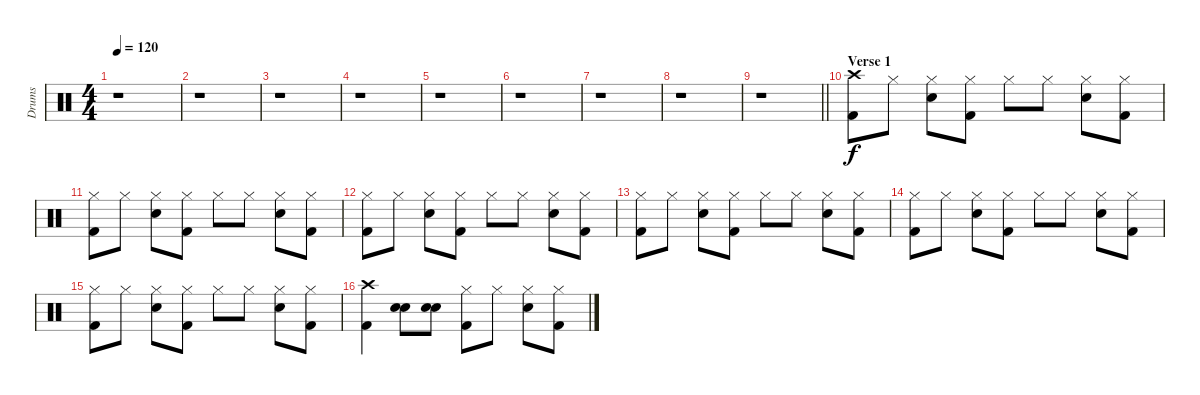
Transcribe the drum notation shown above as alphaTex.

\track ("Drums" "Drums") {instrument percussion}
\staff {score}
\articulation defaults
\ts (4 4)
\tempo 120
\clef neutral
\ks c
r.1{dy f} |
r.1 |
r.1 |
r.1 |
r.1 |
r.1 |
r.1 |
r.1 |
\barLineRight lightlight
r.1 |
\section ("" "Verse 1")
("Crash high (hit)" "Kick (hit) 2").8 "Hi-Hat (closed)".8 ("Hi-Hat (closed)" "Snare (hit) 2").8 ("Hi-Hat (closed)" "Kick (hit) 2").8 "Hi-Hat (closed)".8 "Hi-Hat (closed)".8 ("Hi-Hat (closed)" "Snare (hit) 2").8 ("Hi-Hat (closed)" "Kick (hit) 2").8 |
("Hi-Hat (closed)" "Kick (hit) 2").8 "Hi-Hat (closed)".8 ("Hi-Hat (closed)" "Snare (hit) 2").8 ("Hi-Hat (closed)" "Kick (hit) 2").8 "Hi-Hat (closed)".8 "Hi-Hat (closed)".8 ("Hi-Hat (closed)" "Snare (hit) 2").8 ("Hi-Hat (closed)" "Kick (hit) 2").8 |
("Hi-Hat (closed)" "Kick (hit) 2").8 "Hi-Hat (closed)".8 ("Hi-Hat (closed)" "Snare (hit) 2").8 ("Hi-Hat (closed)" "Kick (hit) 2").8 "Hi-Hat (closed)".8 "Hi-Hat (closed)".8 ("Hi-Hat (closed)" "Snare (hit) 2").8 ("Hi-Hat (closed)" "Kick (hit) 2").8 |
("Hi-Hat (closed)" "Kick (hit) 2").8 "Hi-Hat (closed)".8 ("Hi-Hat (closed)" "Snare (hit) 2").8 ("Hi-Hat (closed)" "Kick (hit) 2").8 "Hi-Hat (closed)".8 "Hi-Hat (closed)".8 ("Hi-Hat (closed)" "Snare (hit) 2").8 ("Hi-Hat (closed)" "Kick (hit) 2").8 |
("Hi-Hat (closed)" "Kick (hit) 2").8 "Hi-Hat (closed)".8 ("Hi-Hat (closed)" "Snare (hit) 2").8 ("Hi-Hat (closed)" "Kick (hit) 2").8 "Hi-Hat (closed)".8 "Hi-Hat (closed)".8 ("Hi-Hat (closed)" "Snare (hit) 2").8 ("Hi-Hat (closed)" "Kick (hit) 2").8 |
("Hi-Hat (closed)" "Kick (hit) 2").8 "Hi-Hat (closed)".8 ("Hi-Hat (closed)" "Snare (hit) 2").8 ("Hi-Hat (closed)" "Kick (hit) 2").8 "Hi-Hat (closed)".8 "Hi-Hat (closed)".8 ("Hi-Hat (closed)" "Snare (hit) 2").8 ("Hi-Hat (closed)" "Kick (hit) 2").8 |
("Crash high (hit)" "Kick (hit) 2").4 ("Snare (hit) 2" "Snare (hit) 2").8 ("Snare (hit) 2" "Snare (hit) 2").8 ("Hi-Hat (closed)" "Kick (hit) 2").8 "Hi-Hat (closed)".8 ("Hi-Hat (closed)" "Snare (hit) 2").8 ("Hi-Hat (closed)" "Kick (hit) 2").8
